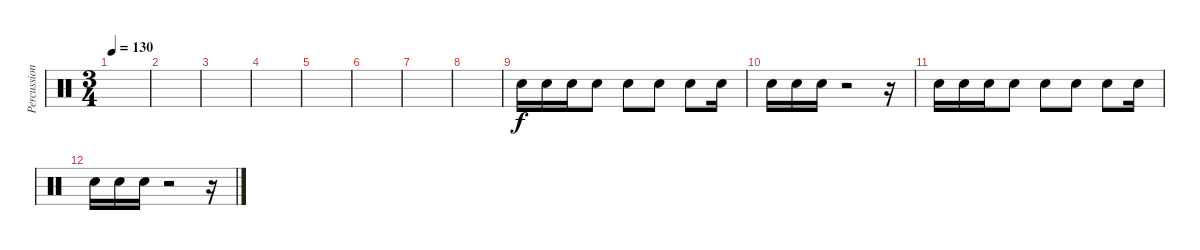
\track ("Percussions" "Percussion") {instrument percussion}
\staff {score}
\articulation defaults
\ts (3 4)
\tempo 130
\clef neutral
\ks c
|
|
|
|
|
|
|
|
"Electric Snare (hit)".16 "Electric Snare (hit)".16 "Electric Snare (hit)".16 "Electric Snare (hit)".8 "Electric Snare (hit)".8 "Electric Snare (hit)".8 "Electric Snare (hit)".8 "Electric Snare (hit)".16 |
"Electric Snare (hit)".16 "Electric Snare (hit)".16 "Electric Snare (hit)".16 r.2 r.16 |
"Electric Snare (hit)".16 "Electric Snare (hit)".16 "Electric Snare (hit)".16 "Electric Snare (hit)".8 "Electric Snare (hit)".8 "Electric Snare (hit)".8 "Electric Snare (hit)".8 "Electric Snare (hit)".16 |
"Electric Snare (hit)".16 "Electric Snare (hit)".16 "Electric Snare (hit)".16 r.2 r.16
